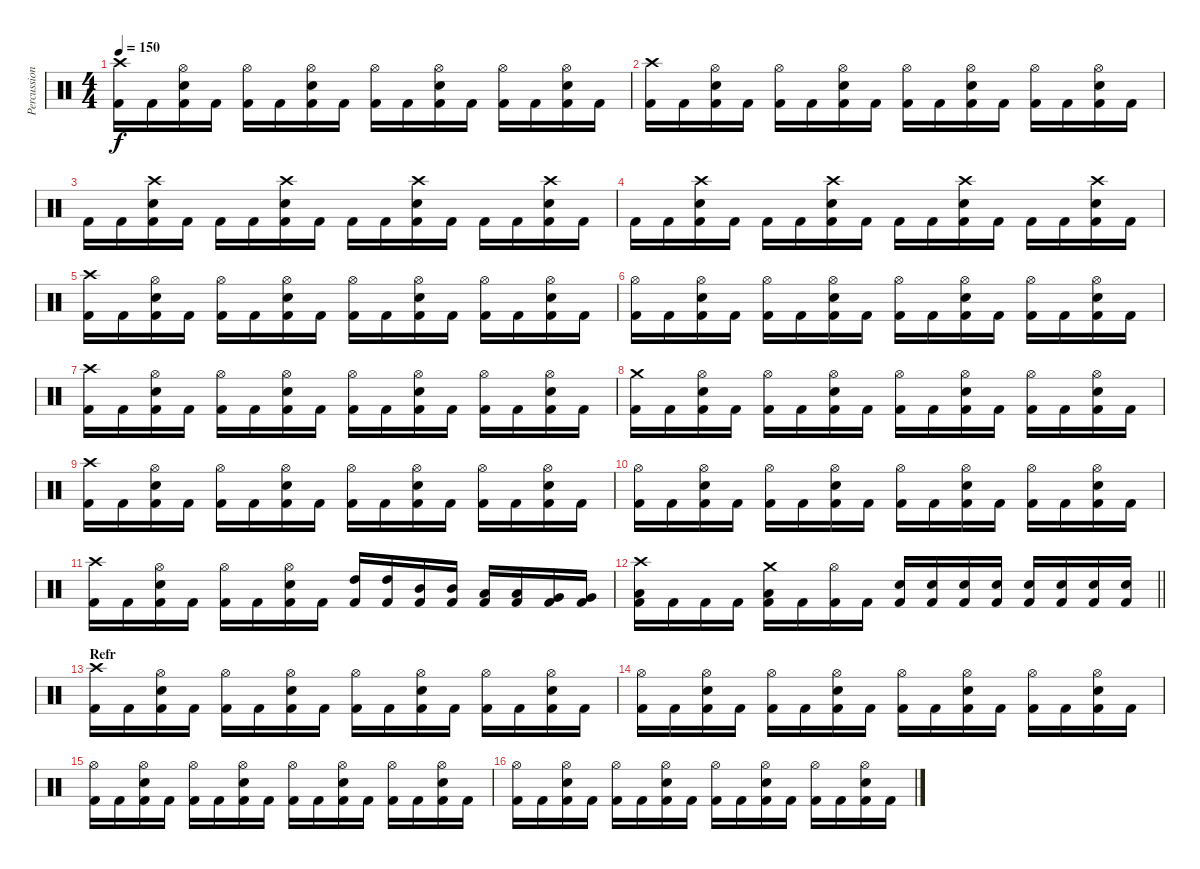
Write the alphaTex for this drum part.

\track ("Percussion" "Percussion") {instrument percussion}
\staff {score}
\articulation defaults
\ts (4 4)
\tempo 150
\clef neutral
\ks c
("Crash high (hit)" "Kick (hit) 2").16{dy f} "Kick (hit) 2".16 ("Hi-Hat (open)" "Snare (hit) 2" "Kick (hit) 2").16 "Kick (hit) 2".16 ("Hi-Hat (open)" "Kick (hit) 2").16 "Kick (hit) 2".16 ("Hi-Hat (open)" "Snare (hit) 2" "Kick (hit) 2").16 "Kick (hit) 2".16 ("Hi-Hat (open)" "Kick (hit) 2").16 "Kick (hit) 2".16 ("Hi-Hat (open)" "Snare (hit) 2" "Kick (hit) 2").16 "Kick (hit) 2".16 ("Hi-Hat (open)" "Kick (hit) 2").16 "Kick (hit) 2".16 ("Hi-Hat (open)" "Snare (hit) 2" "Kick (hit) 2").16 "Kick (hit) 2".16 |
("Crash high (hit)" "Kick (hit) 2").16 "Kick (hit) 2".16 ("Hi-Hat (open)" "Snare (hit) 2" "Kick (hit) 2").16 "Kick (hit) 2".16 ("Hi-Hat (open)" "Kick (hit) 2").16 "Kick (hit) 2".16 ("Hi-Hat (open)" "Snare (hit) 2" "Kick (hit) 2").16 "Kick (hit) 2".16 ("Hi-Hat (open)" "Kick (hit) 2").16 "Kick (hit) 2".16 ("Hi-Hat (open)" "Snare (hit) 2" "Kick (hit) 2").16 "Kick (hit) 2".16 ("Hi-Hat (open)" "Kick (hit) 2").16 "Kick (hit) 2".16 ("Hi-Hat (open)" "Snare (hit) 2" "Kick (hit) 2").16 "Kick (hit) 2".16 |
"Kick (hit) 2".16 "Kick (hit) 2".16 ("Crash high (hit)" "Snare (hit) 2" "Kick (hit) 2").16 "Kick (hit) 2".16 "Kick (hit) 2".16 "Kick (hit) 2".16 ("Crash high (hit)" "Snare (hit) 2" "Kick (hit) 2").16 "Kick (hit) 2".16 "Kick (hit) 2".16 "Kick (hit) 2".16 ("Crash high (hit)" "Snare (hit) 2" "Kick (hit) 2").16 "Kick (hit) 2".16 "Kick (hit) 2".16 "Kick (hit) 2".16 ("Crash high (hit)" "Snare (hit) 2" "Kick (hit) 2").16 "Kick (hit) 2".16 |
"Kick (hit) 2".16 "Kick (hit) 2".16 ("Crash high (hit)" "Snare (hit) 2" "Kick (hit) 2").16 "Kick (hit) 2".16 "Kick (hit) 2".16 "Kick (hit) 2".16 ("Crash high (hit)" "Snare (hit) 2" "Kick (hit) 2").16 "Kick (hit) 2".16 "Kick (hit) 2".16 "Kick (hit) 2".16 ("Crash high (hit)" "Snare (hit) 2" "Kick (hit) 2").16 "Kick (hit) 2".16 "Kick (hit) 2".16 "Kick (hit) 2".16 ("Crash high (hit)" "Snare (hit) 2" "Kick (hit) 2").16 "Kick (hit) 2".16 |
("Crash high (hit)" "Kick (hit) 2").16 "Kick (hit) 2".16 ("Hi-Hat (open)" "Snare (hit) 2" "Kick (hit) 2").16 "Kick (hit) 2".16 ("Hi-Hat (open)" "Kick (hit) 2").16 "Kick (hit) 2".16 ("Hi-Hat (open)" "Snare (hit) 2" "Kick (hit) 2").16 "Kick (hit) 2".16 ("Hi-Hat (open)" "Kick (hit) 2").16 "Kick (hit) 2".16 ("Hi-Hat (open)" "Snare (hit) 2" "Kick (hit) 2").16 "Kick (hit) 2".16 ("Hi-Hat (open)" "Kick (hit) 2").16 "Kick (hit) 2".16 ("Hi-Hat (open)" "Snare (hit) 2" "Kick (hit) 2").16 "Kick (hit) 2".16 |
("Hi-Hat (open)" "Kick (hit) 2").16 "Kick (hit) 2".16 ("Hi-Hat (open)" "Snare (hit) 2" "Kick (hit) 2").16 "Kick (hit) 2".16 ("Hi-Hat (open)" "Kick (hit) 2").16 "Kick (hit) 2".16 ("Hi-Hat (open)" "Snare (hit) 2" "Kick (hit) 2").16 "Kick (hit) 2".16 ("Hi-Hat (open)" "Kick (hit) 2").16 "Kick (hit) 2".16 ("Hi-Hat (open)" "Snare (hit) 2" "Kick (hit) 2").16 "Kick (hit) 2".16 ("Hi-Hat (open)" "Kick (hit) 2").16 "Kick (hit) 2".16 ("Hi-Hat (open)" "Snare (hit) 2" "Kick (hit) 2").16 "Kick (hit) 2".16 |
("Crash high (hit)" "Kick (hit) 2").16 "Kick (hit) 2".16 ("Hi-Hat (open)" "Snare (hit) 2" "Kick (hit) 2").16 "Kick (hit) 2".16 ("Hi-Hat (open)" "Kick (hit) 2").16 "Kick (hit) 2".16 ("Hi-Hat (open)" "Snare (hit) 2" "Kick (hit) 2").16 "Kick (hit) 2".16 ("Hi-Hat (open)" "Kick (hit) 2").16 "Kick (hit) 2".16 ("Hi-Hat (open)" "Snare (hit) 2" "Kick (hit) 2").16 "Kick (hit) 2".16 ("Hi-Hat (open)" "Kick (hit) 2").16 "Kick (hit) 2".16 ("Hi-Hat (open)" "Snare (hit) 2" "Kick (hit) 2").16 "Kick (hit) 2".16 |
("Crash medium (hit)" "Kick (hit) 2").16 "Kick (hit) 2".16 ("Hi-Hat (open)" "Snare (hit) 2" "Kick (hit) 2").16 "Kick (hit) 2".16 ("Hi-Hat (open)" "Kick (hit) 2").16 "Kick (hit) 2".16 ("Hi-Hat (open)" "Snare (hit) 2" "Kick (hit) 2").16 "Kick (hit) 2".16 ("Hi-Hat (open)" "Kick (hit) 2").16 "Kick (hit) 2".16 ("Hi-Hat (open)" "Snare (hit) 2" "Kick (hit) 2").16 "Kick (hit) 2".16 ("Hi-Hat (open)" "Kick (hit) 2").16 "Kick (hit) 2".16 ("Hi-Hat (open)" "Snare (hit) 2" "Kick (hit) 2").16 "Kick (hit) 2".16 |
("Crash high (hit)" "Kick (hit) 2").16 "Kick (hit) 2".16 ("Hi-Hat (open)" "Snare (hit) 2" "Kick (hit) 2").16 "Kick (hit) 2".16 ("Hi-Hat (open)" "Kick (hit) 2").16 "Kick (hit) 2".16 ("Hi-Hat (open)" "Snare (hit) 2" "Kick (hit) 2").16 "Kick (hit) 2".16 ("Hi-Hat (open)" "Kick (hit) 2").16 "Kick (hit) 2".16 ("Hi-Hat (open)" "Snare (hit) 2" "Kick (hit) 2").16 "Kick (hit) 2".16 ("Hi-Hat (open)" "Kick (hit) 2").16 "Kick (hit) 2".16 ("Hi-Hat (open)" "Snare (hit) 2" "Kick (hit) 2").16 "Kick (hit) 2".16 |
("Hi-Hat (open)" "Kick (hit) 2").16 "Kick (hit) 2".16 ("Hi-Hat (open)" "Snare (hit) 2" "Kick (hit) 2").16 "Kick (hit) 2".16 ("Hi-Hat (open)" "Kick (hit) 2").16 "Kick (hit) 2".16 ("Hi-Hat (open)" "Snare (hit) 2" "Kick (hit) 2").16 "Kick (hit) 2".16 ("Hi-Hat (open)" "Kick (hit) 2").16 "Kick (hit) 2".16 ("Hi-Hat (open)" "Snare (hit) 2" "Kick (hit) 2").16 "Kick (hit) 2".16 ("Hi-Hat (open)" "Kick (hit) 2").16 "Kick (hit) 2".16 ("Hi-Hat (open)" "Snare (hit) 2" "Kick (hit) 2").16 "Kick (hit) 2".16 |
("Crash high (hit)" "Kick (hit) 2").16 "Kick (hit) 2".16 ("Hi-Hat (open)" "Snare (hit) 2" "Kick (hit) 2").16 "Kick (hit) 2".16 ("Hi-Hat (open)" "Kick (hit) 2").16 "Kick (hit) 2".16 ("Hi-Hat (open)" "Snare (hit) 2" "Kick (hit) 2").16 "Kick (hit) 2".16 ("High Tom (hit)" "Kick (hit) 2").16 ("High Tom (hit)" "Kick (hit) 2").16 ("Mid Tom (hit)" "Kick (hit) 2").16 ("Mid Tom (hit)" "Kick (hit) 2").16 ("Low Tom (hit)" "Kick (hit) 2").16 ("Low Tom (hit)" "Kick (hit) 2").16 ("Very Low Tom (hit)" "Kick (hit) 2").16 ("Very Low Tom (hit)" "Kick (hit) 2").16 |
\barLineRight lightlight
("Crash high (hit)" "Low Floor Tom (hit)" "Kick (hit) 2").16 "Kick (hit) 2".16 "Kick (hit) 2".16 "Kick (hit) 2".16 ("Crash medium (hit)" "Low Floor Tom (hit)" "Kick (hit) 2").16 "Kick (hit) 2".16 ("Hi-Hat (open)" "Kick (hit) 2").16 "Kick (hit) 2".16 ("Snare (hit) 2" "Kick (hit) 2").16 ("Snare (hit) 2" "Kick (hit) 2").16 ("Snare (hit) 2" "Kick (hit) 2").16 ("Snare (hit) 2" "Kick (hit) 2").16 ("Snare (hit) 2" "Kick (hit) 2").16 ("Snare (hit) 2" "Kick (hit) 2").16 ("Snare (hit) 2" "Kick (hit) 2").16 ("Snare (hit)" "Kick (hit) 2").16 |
\section ("" "Refr")
("Crash high (hit)" "Kick (hit) 2").16 "Kick (hit) 2".16 ("Hi-Hat (open)" "Snare (hit) 2" "Kick (hit) 2").16 "Kick (hit) 2".16 ("Hi-Hat (open)" "Kick (hit) 2").16 "Kick (hit) 2".16 ("Hi-Hat (open)" "Snare (hit) 2" "Kick (hit) 2").16 "Kick (hit) 2".16 ("Hi-Hat (open)" "Kick (hit) 2").16 "Kick (hit) 2".16 ("Hi-Hat (open)" "Snare (hit) 2" "Kick (hit) 2").16 "Kick (hit) 2".16 ("Hi-Hat (open)" "Kick (hit) 2").16 "Kick (hit) 2".16 ("Hi-Hat (open)" "Snare (hit) 2" "Kick (hit) 2").16 "Kick (hit) 2".16 |
("Hi-Hat (open)" "Kick (hit) 2").16 "Kick (hit) 2".16 ("Hi-Hat (open)" "Snare (hit) 2" "Kick (hit) 2").16 "Kick (hit) 2".16 ("Hi-Hat (open)" "Kick (hit) 2").16 "Kick (hit) 2".16 ("Hi-Hat (open)" "Snare (hit) 2" "Kick (hit) 2").16 "Kick (hit) 2".16 ("Hi-Hat (open)" "Kick (hit) 2").16 "Kick (hit) 2".16 ("Hi-Hat (open)" "Snare (hit) 2" "Kick (hit) 2").16 "Kick (hit) 2".16 ("Hi-Hat (open)" "Kick (hit) 2").16 "Kick (hit) 2".16 ("Hi-Hat (open)" "Snare (hit) 2" "Kick (hit) 2").16 "Kick (hit) 2".16 |
("Hi-Hat (open)" "Kick (hit) 2").16 "Kick (hit) 2".16 ("Hi-Hat (open)" "Snare (hit) 2" "Kick (hit) 2").16 "Kick (hit) 2".16 ("Hi-Hat (open)" "Kick (hit) 2").16 "Kick (hit) 2".16 ("Hi-Hat (open)" "Snare (hit) 2" "Kick (hit) 2").16 "Kick (hit) 2".16 ("Hi-Hat (open)" "Kick (hit) 2").16 "Kick (hit) 2".16 ("Hi-Hat (open)" "Snare (hit) 2" "Kick (hit) 2").16 "Kick (hit) 2".16 ("Hi-Hat (open)" "Kick (hit) 2").16 "Kick (hit) 2".16 ("Hi-Hat (open)" "Snare (hit) 2" "Kick (hit) 2").16 "Kick (hit) 2".16 |
("Hi-Hat (open)" "Kick (hit) 2").16 "Kick (hit) 2".16 ("Hi-Hat (open)" "Snare (hit) 2" "Kick (hit) 2").16 "Kick (hit) 2".16 ("Hi-Hat (open)" "Kick (hit) 2").16 "Kick (hit) 2".16 ("Hi-Hat (open)" "Snare (hit) 2" "Kick (hit) 2").16 "Kick (hit) 2".16 ("Hi-Hat (open)" "Kick (hit) 2").16 "Kick (hit) 2".16 ("Hi-Hat (open)" "Snare (hit) 2" "Kick (hit) 2").16 "Kick (hit) 2".16 ("Hi-Hat (open)" "Kick (hit) 2").16 "Kick (hit) 2".16 ("Hi-Hat (open)" "Snare (hit) 2" "Kick (hit) 2").16 "Kick (hit) 2".16
